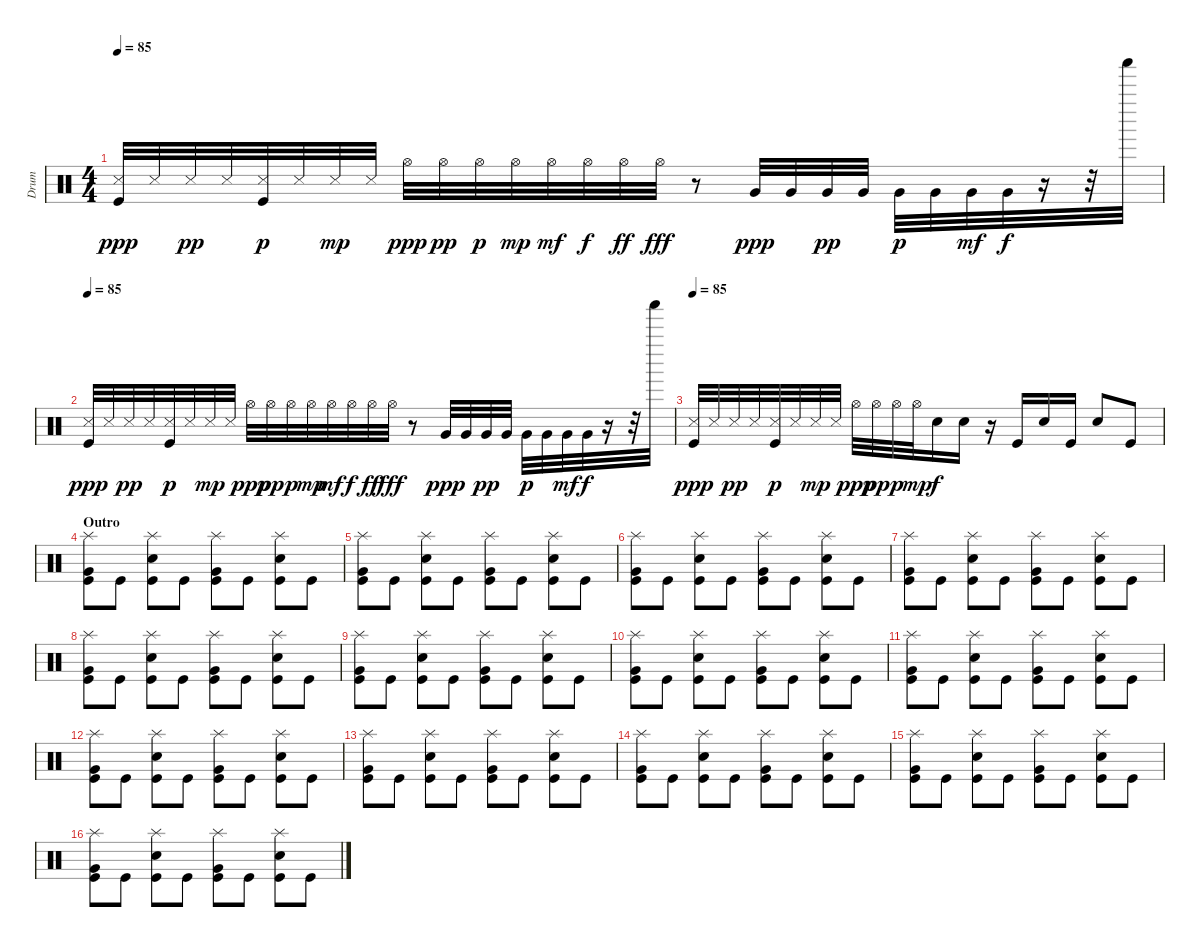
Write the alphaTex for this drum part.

\track ("Drum" "Drum") {instrument percussion}
\staff {score}
\articulation defaults
\ts (4 4)
\tempo 85
\clef neutral
\ks c
("Snare (side stick) 3" "Kick (hit)").32{dy ppp} "Snare (side stick) 3".32 "Snare (side stick) 3".32{dy pp} "Snare (side stick) 3".32 ("Snare (side stick) 3" "Kick (hit)").32{dy p} "Snare (side stick) 3".32 "Snare (side stick) 3".32{dy mp} "Snare (side stick) 3".32 "Hi-Hat (open)".32{dy ppp} "Hi-Hat (open)".32{dy pp} "Hi-Hat (open)".32{dy p} "Hi-Hat (open)".32{dy mp} "Hi-Hat (open)".32{dy mf} "Hi-Hat (open)".32{dy f} "Hi-Hat (open)".32{dy ff} "Hi-Hat (open)".32{dy fff} r.8 "Very Low Tom (hit)".32{dy ppp} "Very Low Tom (hit)".32 "Very Low Tom (hit)".32{dy pp} "Very Low Tom (hit)".32 "Very Low Tom (hit)".32{dy p} "Very Low Tom (hit)".32 "Very Low Tom (hit)".32{dy mf} "Very Low Tom (hit)".32{dy f} r.16 r.32 "Shaker (hit)".32 |
\tempo 85
("Snare (side stick) 3" "Kick (hit)").32{dy ppp} "Snare (side stick) 3".32 "Snare (side stick) 3".32{dy pp} "Snare (side stick) 3".32 ("Snare (side stick) 3" "Kick (hit)").32{dy p} "Snare (side stick) 3".32 "Snare (side stick) 3".32{dy mp} "Snare (side stick) 3".32 "Hi-Hat (open)".32{dy ppp} "Hi-Hat (open)".32{dy pp} "Hi-Hat (open)".32{dy p} "Hi-Hat (open)".32{dy mp} "Hi-Hat (open)".32{dy mf} "Hi-Hat (open)".32{dy f} "Hi-Hat (open)".32{dy ff} "Hi-Hat (open)".32{dy fff} r.8 "Very Low Tom (hit)".32{dy ppp} "Very Low Tom (hit)".32 "Very Low Tom (hit)".32{dy pp} "Very Low Tom (hit)".32 "Very Low Tom (hit)".32{dy p} "Very Low Tom (hit)".32 "Very Low Tom (hit)".32{dy mf} "Very Low Tom (hit)".32{dy f} r.16 r.32 "Shaker (hit)".32 |
\tempo 85
("Snare (side stick) 3" "Kick (hit)").32{dy ppp} "Snare (side stick) 3".32 "Snare (side stick) 3".32{dy pp} "Snare (side stick) 3".32 ("Snare (side stick) 3" "Kick (hit)").32{dy p} "Snare (side stick) 3".32 "Snare (side stick) 3".32{dy mp} "Snare (side stick) 3".32 "Hi-Hat (open)".32{dy ppp} "Hi-Hat (open)".32{dy pp} "Hi-Hat (open)".32{dy p} "Hi-Hat (open)".32{dy mp} "Snare (hit) 2".16{dy f} "Snare (hit) 2".16 r.16 "Kick (hit)".16 "Snare (hit) 2".16 "Kick (hit)".16 "Snare (hit) 2".8 "Kick (hit)".8 |
\section ("" "Outro")
("Splash (hit)" "Very Low Tom (hit)" "Kick (hit)").8 "Kick (hit)".8 ("Splash (hit)" "Snare (hit) 2" "Kick (hit)").8 "Kick (hit)".8 ("Splash (hit)" "Very Low Tom (hit)" "Kick (hit)").8 "Kick (hit)".8 ("Splash (hit)" "Snare (hit) 2" "Kick (hit)").8 "Kick (hit)".8 |
("Splash (hit)" "Very Low Tom (hit)" "Kick (hit)").8 "Kick (hit)".8 ("Splash (hit)" "Snare (hit) 2" "Kick (hit)").8 "Kick (hit)".8 ("Splash (hit)" "Very Low Tom (hit)" "Kick (hit)").8 "Kick (hit)".8 ("Splash (hit)" "Snare (hit) 2" "Kick (hit)").8 "Kick (hit)".8 |
("Splash (hit)" "Very Low Tom (hit)" "Kick (hit)").8 "Kick (hit)".8 ("Splash (hit)" "Snare (hit) 2" "Kick (hit)").8 "Kick (hit)".8 ("Splash (hit)" "Very Low Tom (hit)" "Kick (hit)").8 "Kick (hit)".8 ("Splash (hit)" "Snare (hit) 2" "Kick (hit)").8 "Kick (hit)".8 |
("Splash (hit)" "Very Low Tom (hit)" "Kick (hit)").8 "Kick (hit)".8 ("Splash (hit)" "Snare (hit) 2" "Kick (hit)").8 "Kick (hit)".8 ("Splash (hit)" "Very Low Tom (hit)" "Kick (hit)").8 "Kick (hit)".8 ("Splash (hit)" "Snare (hit) 2" "Kick (hit)").8 "Kick (hit)".8 |
("Splash (hit)" "Very Low Tom (hit)" "Kick (hit)").8 "Kick (hit)".8 ("Splash (hit)" "Snare (hit) 2" "Kick (hit)").8 "Kick (hit)".8 ("Splash (hit)" "Very Low Tom (hit)" "Kick (hit)").8 "Kick (hit)".8 ("Splash (hit)" "Snare (hit) 2" "Kick (hit)").8 "Kick (hit)".8 |
("Splash (hit)" "Very Low Tom (hit)" "Kick (hit)").8 "Kick (hit)".8 ("Splash (hit)" "Snare (hit) 2" "Kick (hit)").8 "Kick (hit)".8 ("Splash (hit)" "Very Low Tom (hit)" "Kick (hit)").8 "Kick (hit)".8 ("Splash (hit)" "Snare (hit) 2" "Kick (hit)").8 "Kick (hit)".8 |
("Splash (hit)" "Very Low Tom (hit)" "Kick (hit)").8 "Kick (hit)".8 ("Splash (hit)" "Snare (hit) 2" "Kick (hit)").8 "Kick (hit)".8 ("Splash (hit)" "Very Low Tom (hit)" "Kick (hit)").8 "Kick (hit)".8 ("Splash (hit)" "Snare (hit) 2" "Kick (hit)").8 "Kick (hit)".8 |
("Splash (hit)" "Very Low Tom (hit)" "Kick (hit)").8 "Kick (hit)".8 ("Splash (hit)" "Snare (hit) 2" "Kick (hit)").8 "Kick (hit)".8 ("Splash (hit)" "Very Low Tom (hit)" "Kick (hit)").8 "Kick (hit)".8 ("Splash (hit)" "Snare (hit) 2" "Kick (hit)").8 "Kick (hit)".8 |
("Splash (hit)" "Very Low Tom (hit)" "Kick (hit)").8 "Kick (hit)".8 ("Splash (hit)" "Snare (hit) 2" "Kick (hit)").8 "Kick (hit)".8 ("Splash (hit)" "Very Low Tom (hit)" "Kick (hit)").8 "Kick (hit)".8 ("Splash (hit)" "Snare (hit) 2" "Kick (hit)").8 "Kick (hit)".8 |
("Splash (hit)" "Very Low Tom (hit)" "Kick (hit)").8 "Kick (hit)".8 ("Splash (hit)" "Snare (hit) 2" "Kick (hit)").8 "Kick (hit)".8 ("Splash (hit)" "Very Low Tom (hit)" "Kick (hit)").8 "Kick (hit)".8 ("Splash (hit)" "Snare (hit) 2" "Kick (hit)").8 "Kick (hit)".8 |
("Splash (hit)" "Very Low Tom (hit)" "Kick (hit)").8 "Kick (hit)".8 ("Splash (hit)" "Snare (hit) 2" "Kick (hit)").8 "Kick (hit)".8 ("Splash (hit)" "Very Low Tom (hit)" "Kick (hit)").8 "Kick (hit)".8 ("Splash (hit)" "Snare (hit) 2" "Kick (hit)").8 "Kick (hit)".8 |
("Splash (hit)" "Very Low Tom (hit)" "Kick (hit)").8 "Kick (hit)".8 ("Splash (hit)" "Snare (hit) 2" "Kick (hit)").8 "Kick (hit)".8 ("Splash (hit)" "Very Low Tom (hit)" "Kick (hit)").8 "Kick (hit)".8 ("Splash (hit)" "Snare (hit) 2" "Kick (hit)").8 "Kick (hit)".8 |
("Splash (hit)" "Very Low Tom (hit)" "Kick (hit)").8 "Kick (hit)".8 ("Splash (hit)" "Snare (hit) 2" "Kick (hit)").8 "Kick (hit)".8 ("Splash (hit)" "Very Low Tom (hit)" "Kick (hit)").8 "Kick (hit)".8 ("Splash (hit)" "Snare (hit) 2" "Kick (hit)").8 "Kick (hit)".8
